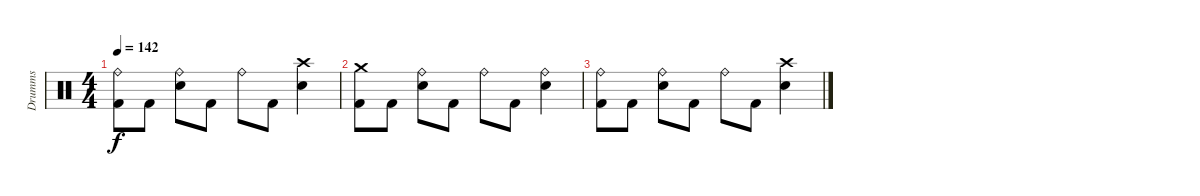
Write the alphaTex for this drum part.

\track ("Drumms" "Drumms") {instrument percussion}
\staff {score}
\articulation defaults
\ts (4 4)
\tempo 142
\clef neutral
\ks c
("Kick (hit) 2" "Ride (bell)").8{dy f} "Kick (hit) 2".8 ("Electric Snare (hit)" "Ride (bell)").8 "Kick (hit) 2".8 "Ride (bell)".8 "Kick (hit) 2".8 ("Electric Snare (hit)" "Crash high (hit)").4 |
("Kick (hit) 2" "Crash medium (hit)").8 "Kick (hit) 2".8 ("Electric Snare (hit)" "Ride (bell)").8 "Kick (hit) 2".8 "Ride (bell)".8 "Kick (hit) 2".8 ("Electric Snare (hit)" "Ride (bell)").4 |
("Kick (hit) 2" "Ride (bell)").8 "Kick (hit) 2".8 ("Electric Snare (hit)" "Ride (bell)").8 "Kick (hit) 2".8 "Ride (bell)".8 "Kick (hit) 2".8 ("Electric Snare (hit)" "Crash high (hit)").4
